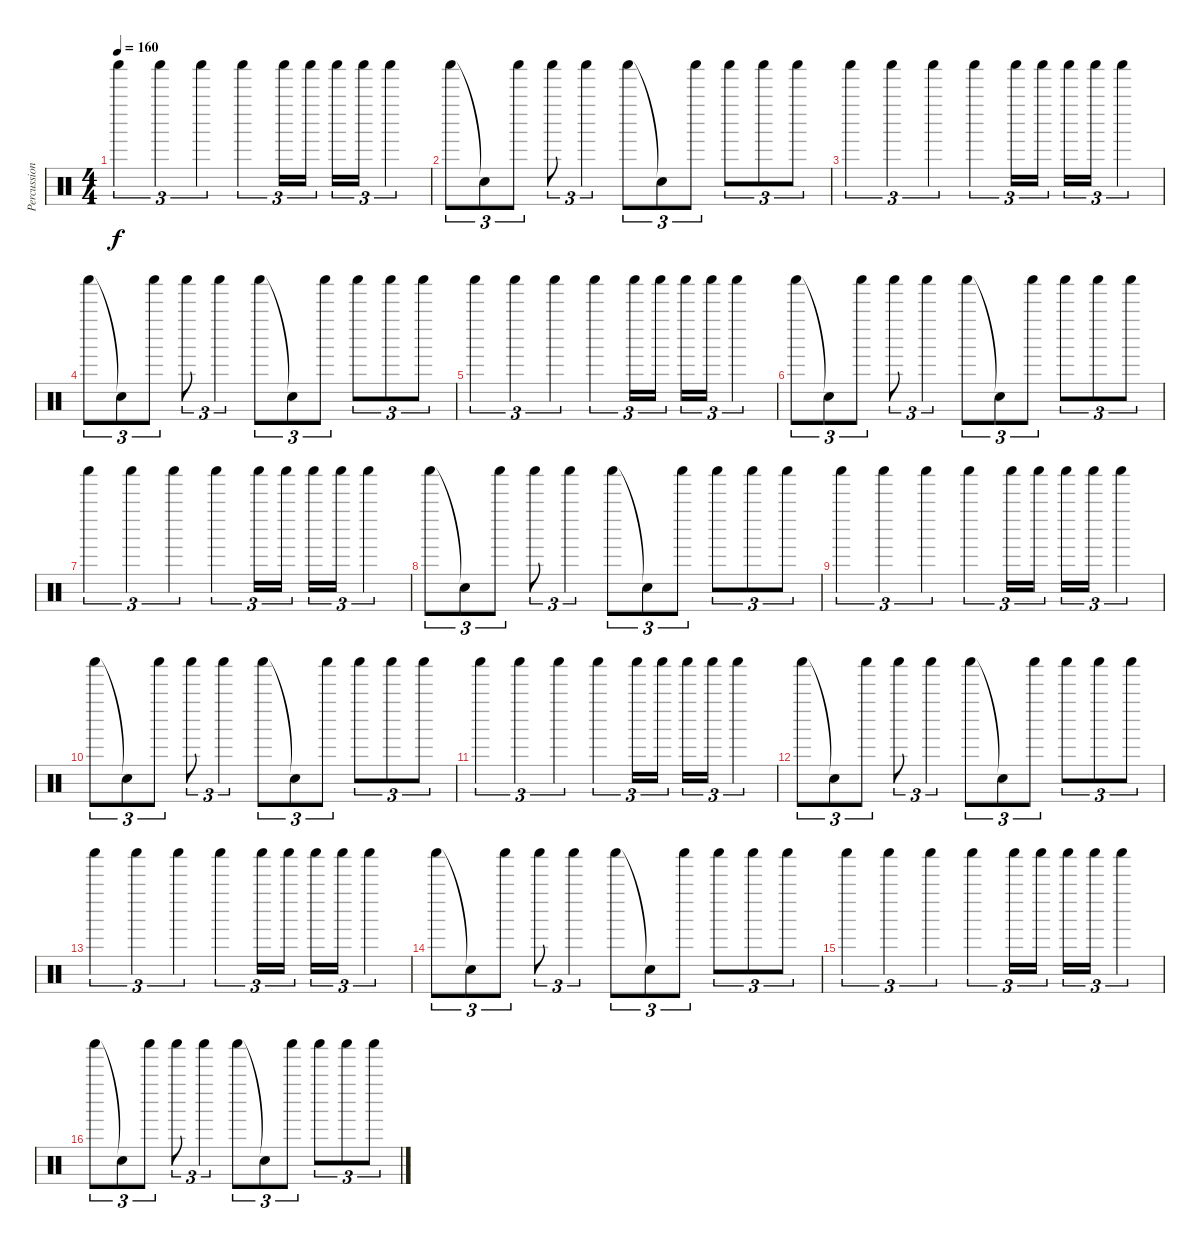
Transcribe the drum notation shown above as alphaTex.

\track ("Percussion" "Percussion") {instrument percussion}
\staff {score}
\articulation defaults
\ts (4 4)
\tempo 160
\clef neutral
\ks c "Shaker (hit)".4{tu (3 2) dy f} "Shaker (hit)".4{tu (3 2)} "Shaker (hit)".4{tu (3 2)} "Shaker (hit)".4{tu (3 2)} "Shaker (hit)".16{tu (3 2)} "Shaker (hit)".16{tu (3 2)} "Shaker (hit)".16{tu (3 2)} "Shaker (hit)".16{tu (3 2)} "Shaker (hit)".4{tu (3 2)}
|
"Shaker (hit)".8{tu (3 2)} "Snare (hit)"{t}.8{tu (3 2)} "Shaker (hit)".8{tu (3 2)} "Shaker (hit)".8{tu (3 2)} "Shaker (hit)".4{tu (3 2)} "Shaker (hit)".8{tu (3 2)} "Snare (hit)"{t}.8{tu (3 2)} "Shaker (hit)".8{tu (3 2)} "Shaker (hit)".8{tu (3 2)} "Shaker (hit)".8{tu (3 2)} "Shaker (hit)".8{tu (3 2)} |
"Shaker (hit)".4{tu (3 2)} "Shaker (hit)".4{tu (3 2)} "Shaker (hit)".4{tu (3 2)} "Shaker (hit)".4{tu (3 2)} "Shaker (hit)".16{tu (3 2)} "Shaker (hit)".16{tu (3 2)} "Shaker (hit)".16{tu (3 2)} "Shaker (hit)".16{tu (3 2)} "Shaker (hit)".4{tu (3 2)} |
"Shaker (hit)".8{tu (3 2)} "Snare (hit)"{t}.8{tu (3 2)} "Shaker (hit)".8{tu (3 2)} "Shaker (hit)".8{tu (3 2)} "Shaker (hit)".4{tu (3 2)} "Shaker (hit)".8{tu (3 2)} "Snare (hit)"{t}.8{tu (3 2)} "Shaker (hit)".8{tu (3 2)} "Shaker (hit)".8{tu (3 2)} "Shaker (hit)".8{tu (3 2)} "Shaker (hit)".8{tu (3 2)} |
"Shaker (hit)".4{tu (3 2)} "Shaker (hit)".4{tu (3 2)} "Shaker (hit)".4{tu (3 2)} "Shaker (hit)".4{tu (3 2)} "Shaker (hit)".16{tu (3 2)} "Shaker (hit)".16{tu (3 2)} "Shaker (hit)".16{tu (3 2)} "Shaker (hit)".16{tu (3 2)} "Shaker (hit)".4{tu (3 2)} |
"Shaker (hit)".8{tu (3 2)} "Snare (hit)"{t}.8{tu (3 2)} "Shaker (hit)".8{tu (3 2)} "Shaker (hit)".8{tu (3 2)} "Shaker (hit)".4{tu (3 2)} "Shaker (hit)".8{tu (3 2)} "Snare (hit)"{t}.8{tu (3 2)} "Shaker (hit)".8{tu (3 2)} "Shaker (hit)".8{tu (3 2)} "Shaker (hit)".8{tu (3 2)} "Shaker (hit)".8{tu (3 2)} |
"Shaker (hit)".4{tu (3 2)} "Shaker (hit)".4{tu (3 2)} "Shaker (hit)".4{tu (3 2)} "Shaker (hit)".4{tu (3 2)} "Shaker (hit)".16{tu (3 2)} "Shaker (hit)".16{tu (3 2)} "Shaker (hit)".16{tu (3 2)} "Shaker (hit)".16{tu (3 2)} "Shaker (hit)".4{tu (3 2)} |
"Shaker (hit)".8{tu (3 2)} "Snare (hit)"{t}.8{tu (3 2)} "Shaker (hit)".8{tu (3 2)} "Shaker (hit)".8{tu (3 2)} "Shaker (hit)".4{tu (3 2)} "Shaker (hit)".8{tu (3 2)} "Snare (hit)"{t}.8{tu (3 2)} "Shaker (hit)".8{tu (3 2)} "Shaker (hit)".8{tu (3 2)} "Shaker (hit)".8{tu (3 2)} "Shaker (hit)".8{tu (3 2)} |
"Shaker (hit)".4{tu (3 2)} "Shaker (hit)".4{tu (3 2)} "Shaker (hit)".4{tu (3 2)} "Shaker (hit)".4{tu (3 2)} "Shaker (hit)".16{tu (3 2)} "Shaker (hit)".16{tu (3 2)} "Shaker (hit)".16{tu (3 2)} "Shaker (hit)".16{tu (3 2)} "Shaker (hit)".4{tu (3 2)} |
"Shaker (hit)".8{tu (3 2)} "Snare (hit)"{t}.8{tu (3 2)} "Shaker (hit)".8{tu (3 2)} "Shaker (hit)".8{tu (3 2)} "Shaker (hit)".4{tu (3 2)} "Shaker (hit)".8{tu (3 2)} "Snare (hit)"{t}.8{tu (3 2)} "Shaker (hit)".8{tu (3 2)} "Shaker (hit)".8{tu (3 2)} "Shaker (hit)".8{tu (3 2)} "Shaker (hit)".8{tu (3 2)} |
"Shaker (hit)".4{tu (3 2)} "Shaker (hit)".4{tu (3 2)} "Shaker (hit)".4{tu (3 2)} "Shaker (hit)".4{tu (3 2)} "Shaker (hit)".16{tu (3 2)} "Shaker (hit)".16{tu (3 2)} "Shaker (hit)".16{tu (3 2)} "Shaker (hit)".16{tu (3 2)} "Shaker (hit)".4{tu (3 2)} |
"Shaker (hit)".8{tu (3 2)} "Snare (hit)"{t}.8{tu (3 2)} "Shaker (hit)".8{tu (3 2)} "Shaker (hit)".8{tu (3 2)} "Shaker (hit)".4{tu (3 2)} "Shaker (hit)".8{tu (3 2)} "Snare (hit)"{t}.8{tu (3 2)} "Shaker (hit)".8{tu (3 2)} "Shaker (hit)".8{tu (3 2)} "Shaker (hit)".8{tu (3 2)} "Shaker (hit)".8{tu (3 2)} |
"Shaker (hit)".4{tu (3 2)} "Shaker (hit)".4{tu (3 2)} "Shaker (hit)".4{tu (3 2)} "Shaker (hit)".4{tu (3 2)} "Shaker (hit)".16{tu (3 2)} "Shaker (hit)".16{tu (3 2)} "Shaker (hit)".16{tu (3 2)} "Shaker (hit)".16{tu (3 2)} "Shaker (hit)".4{tu (3 2)} |
"Shaker (hit)".8{tu (3 2)} "Snare (hit)"{t}.8{tu (3 2)} "Shaker (hit)".8{tu (3 2)} "Shaker (hit)".8{tu (3 2)} "Shaker (hit)".4{tu (3 2)} "Shaker (hit)".8{tu (3 2)} "Snare (hit)"{t}.8{tu (3 2)} "Shaker (hit)".8{tu (3 2)} "Shaker (hit)".8{tu (3 2)} "Shaker (hit)".8{tu (3 2)} "Shaker (hit)".8{tu (3 2)} |
"Shaker (hit)".4{tu (3 2)} "Shaker (hit)".4{tu (3 2)} "Shaker (hit)".4{tu (3 2)} "Shaker (hit)".4{tu (3 2)} "Shaker (hit)".16{tu (3 2)} "Shaker (hit)".16{tu (3 2)} "Shaker (hit)".16{tu (3 2)} "Shaker (hit)".16{tu (3 2)} "Shaker (hit)".4{tu (3 2)} |
"Shaker (hit)".8{tu (3 2)} "Snare (hit)"{t}.8{tu (3 2)} "Shaker (hit)".8{tu (3 2)} "Shaker (hit)".8{tu (3 2)} "Shaker (hit)".4{tu (3 2)} "Shaker (hit)".8{tu (3 2)} "Snare (hit)"{t}.8{tu (3 2)} "Shaker (hit)".8{tu (3 2)} "Shaker (hit)".8{tu (3 2)} "Shaker (hit)".8{tu (3 2)} "Shaker (hit)".8{tu (3 2)}
